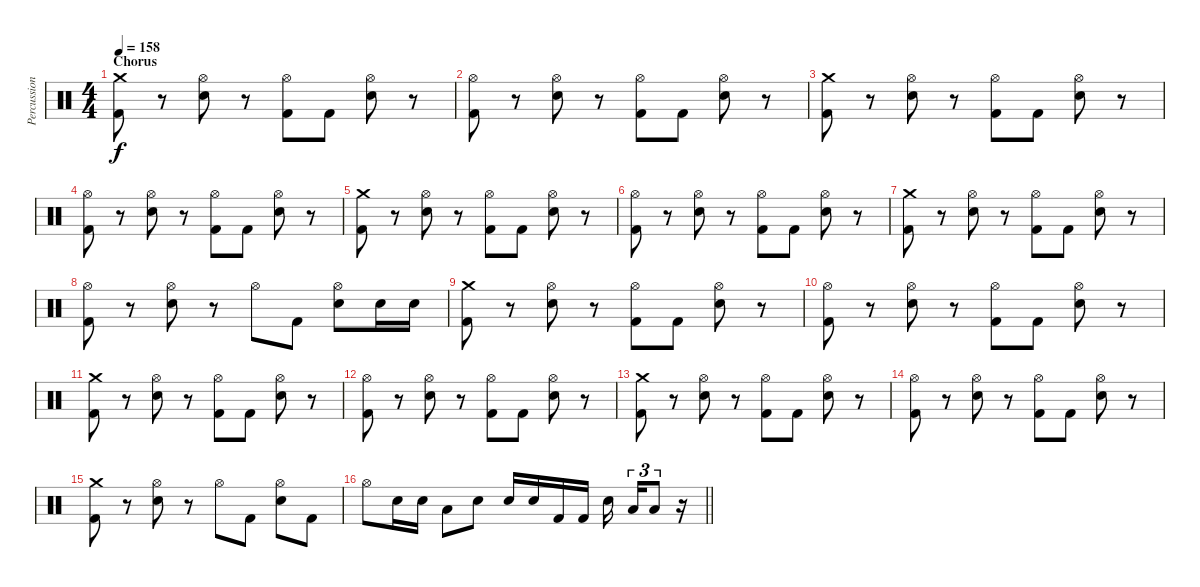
\track ("Percussion" "Percussion") {instrument percussion}
\staff {score}
\articulation defaults
\ts (4 4)
\section ("" "Chorus")
\tempo 158
\clef neutral
\ks c
("Crash medium (hit)" "Kick (hit) 2").8{dy f} r.8 ("Hi-Hat (open)" "Electric Snare (hit)").8 r.8 ("Hi-Hat (open)" "Kick (hit) 2").8 "Kick (hit) 2".8 ("Hi-Hat (open)" "Electric Snare (hit)").8 r.8 |
("Hi-Hat (open)" "Kick (hit) 2").8 r.8 ("Hi-Hat (open)" "Electric Snare (hit)").8 r.8 ("Hi-Hat (open)" "Kick (hit) 2").8 "Kick (hit) 2".8 ("Hi-Hat (open)" "Electric Snare (hit)").8 r.8 |
("Crash medium (hit)" "Kick (hit) 2").8 r.8 ("Hi-Hat (open)" "Electric Snare (hit)").8 r.8 ("Hi-Hat (open)" "Kick (hit) 2").8 "Kick (hit) 2".8 ("Hi-Hat (open)" "Electric Snare (hit)").8 r.8 |
("Hi-Hat (open)" "Kick (hit) 2").8 r.8 ("Hi-Hat (open)" "Electric Snare (hit)").8 r.8 ("Hi-Hat (open)" "Kick (hit) 2").8 "Kick (hit) 2".8 ("Hi-Hat (open)" "Electric Snare (hit)").8 r.8 |
("Crash medium (hit)" "Kick (hit) 2").8 r.8 ("Hi-Hat (open)" "Electric Snare (hit)").8 r.8 ("Hi-Hat (open)" "Kick (hit) 2").8 "Kick (hit) 2".8 ("Hi-Hat (open)" "Electric Snare (hit)").8 r.8 |
("Hi-Hat (open)" "Kick (hit) 2").8 r.8 ("Hi-Hat (open)" "Electric Snare (hit)").8 r.8 ("Hi-Hat (open)" "Kick (hit) 2").8 "Kick (hit) 2".8 ("Hi-Hat (open)" "Electric Snare (hit)").8 r.8 |
("Crash medium (hit)" "Kick (hit) 2").8 r.8 ("Hi-Hat (open)" "Electric Snare (hit)").8 r.8 ("Hi-Hat (open)" "Kick (hit) 2").8 "Kick (hit) 2".8 ("Hi-Hat (open)" "Electric Snare (hit)").8 r.8 |
("Hi-Hat (open)" "Kick (hit) 2").8 r.8 ("Hi-Hat (open)" "Electric Snare (hit)").8 r.8 "Hi-Hat (open)".8 "Kick (hit) 2".8 ("Hi-Hat (open)" "Electric Snare (hit)").8 "Electric Snare (hit)".16 "Electric Snare (hit)".16 |
("Crash medium (hit)" "Kick (hit) 2").8 r.8 ("Hi-Hat (open)" "Electric Snare (hit)").8 r.8 ("Hi-Hat (open)" "Kick (hit) 2").8 "Kick (hit) 2".8 ("Hi-Hat (open)" "Electric Snare (hit)").8 r.8 |
("Hi-Hat (open)" "Kick (hit) 2").8 r.8 ("Hi-Hat (open)" "Electric Snare (hit)").8 r.8 ("Hi-Hat (open)" "Kick (hit) 2").8 "Kick (hit) 2".8 ("Hi-Hat (open)" "Electric Snare (hit)").8 r.8 |
("Crash medium (hit)" "Kick (hit) 2").8 r.8 ("Hi-Hat (open)" "Electric Snare (hit)").8 r.8 ("Hi-Hat (open)" "Kick (hit) 2").8 "Kick (hit) 2".8 ("Hi-Hat (open)" "Electric Snare (hit)").8 r.8 |
("Hi-Hat (open)" "Kick (hit) 2").8 r.8 ("Hi-Hat (open)" "Electric Snare (hit)").8 r.8 ("Hi-Hat (open)" "Kick (hit) 2").8 "Kick (hit) 2".8 ("Hi-Hat (open)" "Electric Snare (hit)").8 r.8 |
("Crash medium (hit)" "Kick (hit) 2").8 r.8 ("Hi-Hat (open)" "Electric Snare (hit)").8 r.8 ("Hi-Hat (open)" "Kick (hit) 2").8 "Kick (hit) 2".8 ("Hi-Hat (open)" "Electric Snare (hit)").8 r.8 |
("Hi-Hat (open)" "Kick (hit) 2").8 r.8 ("Hi-Hat (open)" "Electric Snare (hit)").8 r.8 ("Hi-Hat (open)" "Kick (hit) 2").8 "Kick (hit) 2".8 ("Hi-Hat (open)" "Electric Snare (hit)").8 r.8 |
("Crash medium (hit)" "Kick (hit) 2").8 r.8 ("Hi-Hat (open)" "Electric Snare (hit)").8 r.8 "Hi-Hat (open)".8 "Kick (hit) 2".8 ("Hi-Hat (open)" "Electric Snare (hit)").8 "Kick (hit) 2".8 |
\barLineRight lightlight "Hi-Hat (open)".8 "Electric Snare (hit)".16 "Electric Snare (hit)".16 "Low Tom (hit)".8 "Electric Snare (hit)".8 "Electric Snare (hit)".16 "Electric Snare (hit)".16 "Kick (hit) 2".16 "Kick (hit) 2".16 "Electric Snare (hit)".16{beam splitsecondary} "Low Tom (hit)".16{tu (3 2)} "Low Tom (hit)".8{tu (3 2)}
r.16
